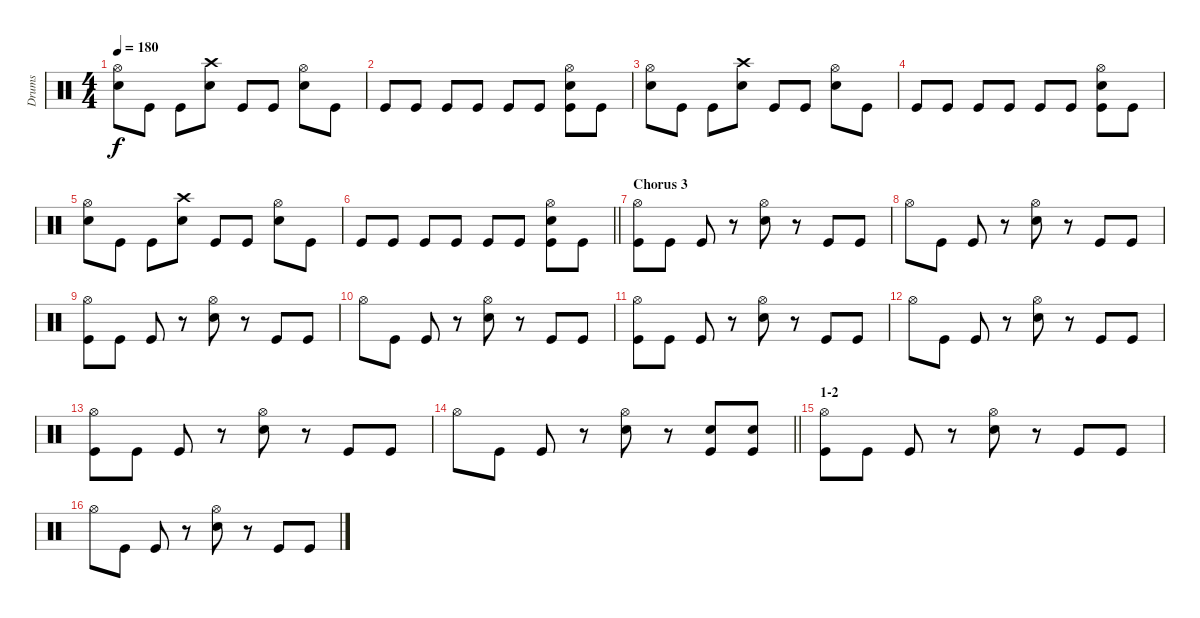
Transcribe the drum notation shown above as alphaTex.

\track ("Drums" "Drums") {instrument percussion}
\staff {score}
\articulation defaults
\ts (4 4)
\tempo 180
\clef neutral
\ks c
("Hi-Hat (open)" "Electric Snare (hit)").8{dy f} "Kick (hit)".8 "Kick (hit)".8 ("Crash high (hit)" "Electric Snare (hit)").8 "Kick (hit)".8 "Kick (hit)".8 ("Hi-Hat (open)" "Electric Snare (hit)").8 "Kick (hit)".8 |
"Kick (hit)".8 "Kick (hit)".8 "Kick (hit)".8 "Kick (hit)".8 "Kick (hit)".8 "Kick (hit)".8 ("Hi-Hat (open)" "Electric Snare (hit)" "Kick (hit)").8 "Kick (hit)".8 |
("Hi-Hat (open)" "Electric Snare (hit)").8 "Kick (hit)".8 "Kick (hit)".8 ("Crash high (hit)" "Electric Snare (hit)").8 "Kick (hit)".8 "Kick (hit)".8 ("Hi-Hat (open)" "Electric Snare (hit)").8 "Kick (hit)".8 |
"Kick (hit)".8 "Kick (hit)".8 "Kick (hit)".8 "Kick (hit)".8 "Kick (hit)".8 "Kick (hit)".8 ("Hi-Hat (open)" "Electric Snare (hit)" "Kick (hit)").8 "Kick (hit)".8 |
("Hi-Hat (open)" "Electric Snare (hit)").8 "Kick (hit)".8 "Kick (hit)".8 ("Crash high (hit)" "Electric Snare (hit)").8 "Kick (hit)".8 "Kick (hit)".8 ("Hi-Hat (open)" "Electric Snare (hit)").8 "Kick (hit)".8 |
\barLineRight lightlight "Kick (hit)".8 "Kick (hit)".8 "Kick (hit)".8 "Kick (hit)".8 "Kick (hit)".8 "Kick (hit)".8
("Hi-Hat (open)" "Electric Snare (hit)" "Kick (hit)").8 "Kick (hit)".8 |
\section ("" "Chorus 3")
("Hi-Hat (open)" "Kick (hit)").8 "Kick (hit)".8 "Kick (hit)".8 r.8 ("Hi-Hat (open)" "Electric Snare (hit)").8 r.8 "Kick (hit)".8 "Kick (hit)".8 |
"Hi-Hat (open)".8 "Kick (hit)".8 "Kick (hit)".8 r.8 ("Hi-Hat (open)" "Electric Snare (hit)").8 r.8 "Kick (hit)".8 "Kick (hit)".8 |
("Hi-Hat (open)" "Kick (hit)").8 "Kick (hit)".8 "Kick (hit)".8 r.8 ("Hi-Hat (open)" "Electric Snare (hit)").8 r.8 "Kick (hit)".8 "Kick (hit)".8 |
"Hi-Hat (open)".8 "Kick (hit)".8 "Kick (hit)".8 r.8 ("Hi-Hat (open)" "Electric Snare (hit)").8 r.8 "Kick (hit)".8 "Kick (hit)".8 |
("Hi-Hat (open)" "Kick (hit)").8 "Kick (hit)".8 "Kick (hit)".8 r.8 ("Hi-Hat (open)" "Electric Snare (hit)").8 r.8 "Kick (hit)".8 "Kick (hit)".8 |
"Hi-Hat (open)".8 "Kick (hit)".8 "Kick (hit)".8 r.8 ("Hi-Hat (open)" "Electric Snare (hit)").8 r.8 "Kick (hit)".8 "Kick (hit)".8 |
("Hi-Hat (open)" "Kick (hit)").8 "Kick (hit)".8 "Kick (hit)".8 r.8 ("Hi-Hat (open)" "Electric Snare (hit)").8 r.8 "Kick (hit)".8 "Kick (hit)".8 |
\barLineRight lightlight "Hi-Hat (open)".8 "Kick (hit)".8 "Kick (hit)".8
r.8 ("Hi-Hat (open)" "Electric Snare (hit)").8 r.8 ("Electric Snare (hit)" "Kick (hit)").8 ("Electric Snare (hit)" "Kick (hit)").8 |
\section ("" "1-2")
("Hi-Hat (open)" "Kick (hit)").8 "Kick (hit)".8 "Kick (hit)".8 r.8 ("Hi-Hat (open)" "Electric Snare (hit)").8 r.8 "Kick (hit)".8 "Kick (hit)".8 |
"Hi-Hat (open)".8 "Kick (hit)".8 "Kick (hit)".8 r.8 ("Hi-Hat (open)" "Electric Snare (hit)").8 r.8 "Kick (hit)".8 "Kick (hit)".8
